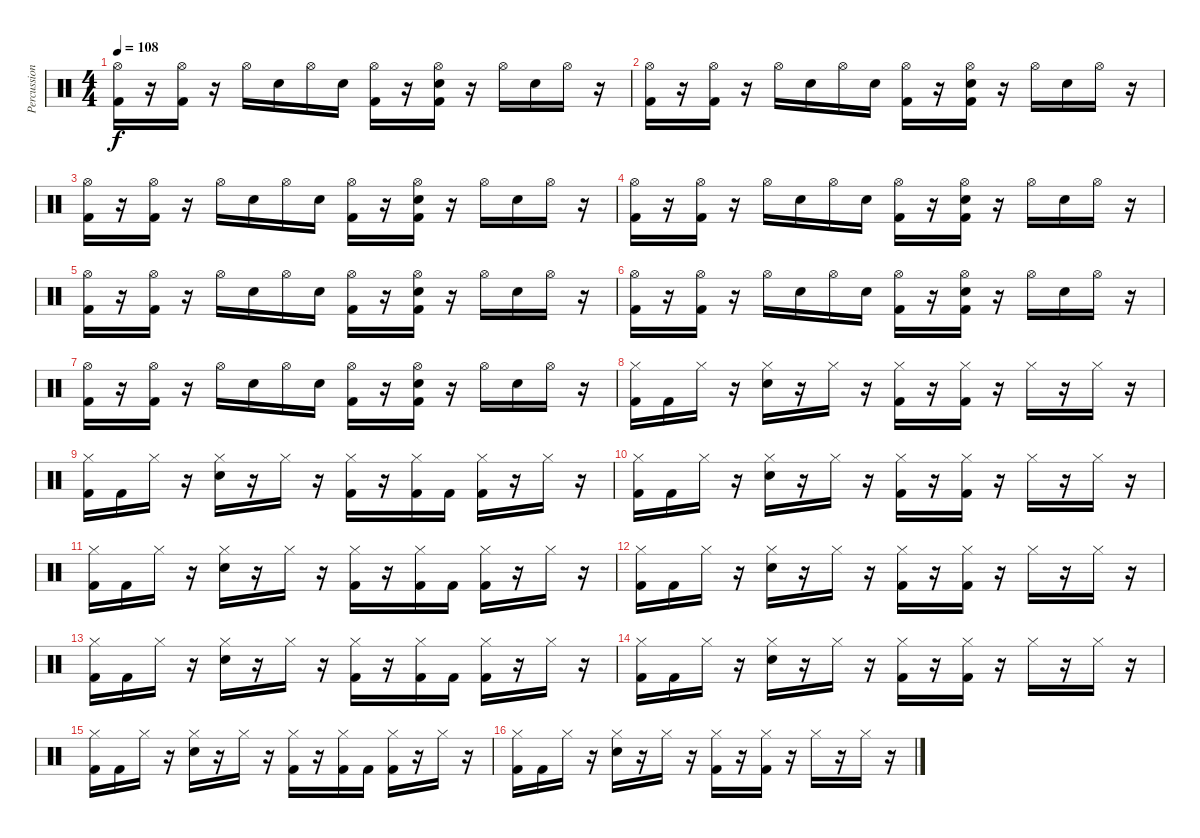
\track ("Percussion" "Percussion") {instrument percussion}
\staff {score}
\articulation defaults
\ts (4 4)
\tempo 108
\clef neutral
\ks c
("Hi-Hat (open)" "Kick (hit) 2").16{dy f} r.16 ("Hi-Hat (open)" "Kick (hit) 2").16 r.16 "Hi-Hat (open)".16 "Snare (hit) 2".16 "Hi-Hat (open)".16 "Snare (hit) 2".16 ("Hi-Hat (open)" "Kick (hit) 2").16 r.16 ("Hi-Hat (open)" "Snare (hit) 2" "Kick (hit) 2").16 r.16 "Hi-Hat (open)".16 "Snare (hit) 2".16 "Hi-Hat (open)".16 r.16 |
("Hi-Hat (open)" "Kick (hit) 2").16 r.16 ("Hi-Hat (open)" "Kick (hit) 2").16 r.16 "Hi-Hat (open)".16 "Snare (hit) 2".16 "Hi-Hat (open)".16 "Snare (hit) 2".16 ("Hi-Hat (open)" "Kick (hit) 2").16 r.16 ("Hi-Hat (open)" "Snare (hit) 2" "Kick (hit) 2").16 r.16 "Hi-Hat (open)".16 "Snare (hit) 2".16 "Hi-Hat (open)".16 r.16 |
("Hi-Hat (open)" "Kick (hit) 2").16 r.16 ("Hi-Hat (open)" "Kick (hit) 2").16 r.16 "Hi-Hat (open)".16 "Snare (hit) 2".16 "Hi-Hat (open)".16 "Snare (hit) 2".16 ("Hi-Hat (open)" "Kick (hit) 2").16 r.16 ("Hi-Hat (open)" "Snare (hit) 2" "Kick (hit) 2").16 r.16 "Hi-Hat (open)".16 "Snare (hit) 2".16 "Hi-Hat (open)".16 r.16 |
("Hi-Hat (open)" "Kick (hit) 2").16 r.16 ("Hi-Hat (open)" "Kick (hit) 2").16 r.16 "Hi-Hat (open)".16 "Snare (hit) 2".16 "Hi-Hat (open)".16 "Snare (hit) 2".16 ("Hi-Hat (open)" "Kick (hit) 2").16 r.16 ("Hi-Hat (open)" "Snare (hit) 2" "Kick (hit) 2").16 r.16 "Hi-Hat (open)".16 "Snare (hit) 2".16 "Hi-Hat (open)".16 r.16 |
("Hi-Hat (open)" "Kick (hit) 2").16 r.16 ("Hi-Hat (open)" "Kick (hit) 2").16 r.16 "Hi-Hat (open)".16 "Snare (hit) 2".16 "Hi-Hat (open)".16 "Snare (hit) 2".16 ("Hi-Hat (open)" "Kick (hit) 2").16 r.16 ("Hi-Hat (open)" "Snare (hit) 2" "Kick (hit) 2").16 r.16 "Hi-Hat (open)".16 "Snare (hit) 2".16 "Hi-Hat (open)".16 r.16 |
("Hi-Hat (open)" "Kick (hit) 2").16 r.16 ("Hi-Hat (open)" "Kick (hit) 2").16 r.16 "Hi-Hat (open)".16 "Snare (hit) 2".16 "Hi-Hat (open)".16 "Snare (hit) 2".16 ("Hi-Hat (open)" "Kick (hit) 2").16 r.16 ("Hi-Hat (open)" "Snare (hit) 2" "Kick (hit) 2").16 r.16 "Hi-Hat (open)".16 "Snare (hit) 2".16 "Hi-Hat (open)".16 r.16 |
("Hi-Hat (open)" "Kick (hit) 2").16 r.16 ("Hi-Hat (open)" "Kick (hit) 2").16 r.16 "Hi-Hat (open)".16 "Snare (hit) 2".16 "Hi-Hat (open)".16 "Snare (hit) 2".16 ("Hi-Hat (open)" "Kick (hit) 2").16 r.16 ("Hi-Hat (open)" "Snare (hit) 2" "Kick (hit) 2").16 r.16 "Hi-Hat (open)".16 "Snare (hit) 2".16 "Hi-Hat (open)".16 r.16 |
("Hi-Hat (closed)" "Kick (hit) 2").16 "Kick (hit) 2".16 "Hi-Hat (closed)".16 r.16 ("Hi-Hat (closed)" "Snare (hit) 2").16 r.16 "Hi-Hat (closed)".16 r.16 ("Hi-Hat (closed)" "Kick (hit) 2").16 r.16 ("Hi-Hat (closed)" "Kick (hit) 2").16 r.16 "Hi-Hat (closed)".16 r.16 "Hi-Hat (closed)".16 r.16 |
("Hi-Hat (closed)" "Kick (hit) 2").16 "Kick (hit) 2".16 "Hi-Hat (closed)".16 r.16 ("Hi-Hat (closed)" "Snare (hit) 2").16 r.16 "Hi-Hat (closed)".16 r.16 ("Hi-Hat (closed)" "Kick (hit) 2").16 r.16 ("Hi-Hat (closed)" "Kick (hit) 2").16 "Kick (hit) 2".16 ("Hi-Hat (closed)" "Kick (hit) 2").16 r.16 "Hi-Hat (closed)".16 r.16 |
("Hi-Hat (closed)" "Kick (hit) 2").16 "Kick (hit) 2".16 "Hi-Hat (closed)".16 r.16 ("Hi-Hat (closed)" "Snare (hit) 2").16 r.16 "Hi-Hat (closed)".16 r.16 ("Hi-Hat (closed)" "Kick (hit) 2").16 r.16 ("Hi-Hat (closed)" "Kick (hit) 2").16 r.16 "Hi-Hat (closed)".16 r.16 "Hi-Hat (closed)".16 r.16 |
("Hi-Hat (closed)" "Kick (hit) 2").16 "Kick (hit) 2".16 "Hi-Hat (closed)".16 r.16 ("Hi-Hat (closed)" "Snare (hit) 2").16 r.16 "Hi-Hat (closed)".16 r.16 ("Hi-Hat (closed)" "Kick (hit) 2").16 r.16 ("Hi-Hat (closed)" "Kick (hit) 2").16 "Kick (hit) 2".16 ("Hi-Hat (closed)" "Kick (hit) 2").16 r.16 "Hi-Hat (closed)".16 r.16 |
("Hi-Hat (closed)" "Kick (hit) 2").16 "Kick (hit) 2".16 "Hi-Hat (closed)".16 r.16 ("Hi-Hat (closed)" "Snare (hit) 2").16 r.16 "Hi-Hat (closed)".16 r.16 ("Hi-Hat (closed)" "Kick (hit) 2").16 r.16 ("Hi-Hat (closed)" "Kick (hit) 2").16 r.16 "Hi-Hat (closed)".16 r.16 "Hi-Hat (closed)".16 r.16 |
("Hi-Hat (closed)" "Kick (hit) 2").16 "Kick (hit) 2".16 "Hi-Hat (closed)".16 r.16 ("Hi-Hat (closed)" "Snare (hit) 2").16 r.16 "Hi-Hat (closed)".16 r.16 ("Hi-Hat (closed)" "Kick (hit) 2").16 r.16 ("Hi-Hat (closed)" "Kick (hit) 2").16 "Kick (hit) 2".16 ("Hi-Hat (closed)" "Kick (hit) 2").16 r.16 "Hi-Hat (closed)".16 r.16 |
("Hi-Hat (closed)" "Kick (hit) 2").16 "Kick (hit) 2".16 "Hi-Hat (closed)".16 r.16 ("Hi-Hat (closed)" "Snare (hit) 2").16 r.16 "Hi-Hat (closed)".16 r.16 ("Hi-Hat (closed)" "Kick (hit) 2").16 r.16 ("Hi-Hat (closed)" "Kick (hit) 2").16 r.16 "Hi-Hat (closed)".16 r.16 "Hi-Hat (closed)".16 r.16 |
("Hi-Hat (closed)" "Kick (hit) 2").16 "Kick (hit) 2".16 "Hi-Hat (closed)".16 r.16 ("Hi-Hat (closed)" "Snare (hit) 2").16 r.16 "Hi-Hat (closed)".16 r.16 ("Hi-Hat (closed)" "Kick (hit) 2").16 r.16 ("Hi-Hat (closed)" "Kick (hit) 2").16 "Kick (hit) 2".16 ("Hi-Hat (closed)" "Kick (hit) 2").16 r.16 "Hi-Hat (closed)".16 r.16 |
("Hi-Hat (closed)" "Kick (hit) 2").16 "Kick (hit) 2".16 "Hi-Hat (closed)".16 r.16 ("Hi-Hat (closed)" "Snare (hit) 2").16 r.16 "Hi-Hat (closed)".16 r.16 ("Hi-Hat (closed)" "Kick (hit) 2").16 r.16 ("Hi-Hat (closed)" "Kick (hit) 2").16 r.16 "Hi-Hat (closed)".16 r.16 "Hi-Hat (closed)".16 r.16
